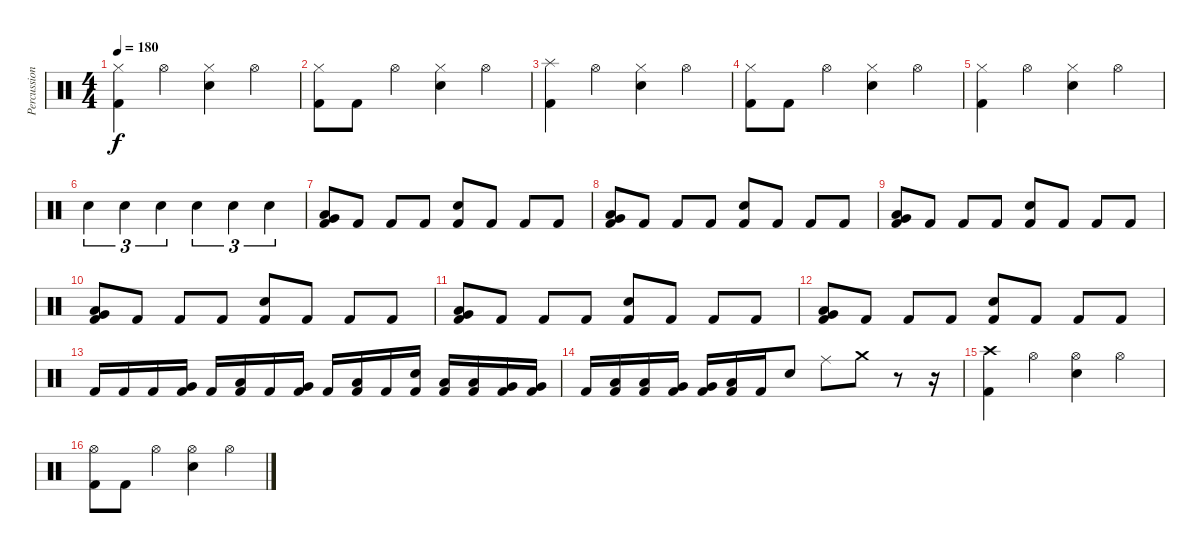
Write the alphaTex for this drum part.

\track ("Percussion" "Percussion") {instrument percussion}
\staff {score}
\articulation defaults
\ts (4 4)
\tempo 180
\clef neutral
\ks c
("Hi-Hat (closed)" "Kick (hit) 2").4{dy f} "Hi-Hat (open)".4 ("Hi-Hat (closed)" "Electric Snare (hit)").4 "Hi-Hat (open)".4 |
("Hi-Hat (closed)" "Kick (hit) 2").8 "Kick (hit) 2".8 "Hi-Hat (open)".4 ("Hi-Hat (closed)" "Electric Snare (hit)").4 "Hi-Hat (open)".4 |
("Splash (hit)" "Kick (hit) 2").4 "Hi-Hat (open)".4 ("Hi-Hat (closed)" "Electric Snare (hit)").4 "Hi-Hat (open)".4 |
("Hi-Hat (closed)" "Kick (hit) 2").8 "Kick (hit) 2".8 "Hi-Hat (open)".4 ("Hi-Hat (closed)" "Electric Snare (hit)").4 "Hi-Hat (open)".4 |
("Hi-Hat (closed)" "Kick (hit) 2").4 "Hi-Hat (open)".4 ("Hi-Hat (closed)" "Electric Snare (hit)").4 "Hi-Hat (open)".4 |
"Electric Snare (hit)".4{tu (3 2)} "Electric Snare (hit)".4{tu (3 2)} "Electric Snare (hit)".4{tu (3 2)} "Electric Snare (hit)".4{tu (3 2)} "Electric Snare (hit)".4{tu (3 2)} "Electric Snare (hit)".4{tu (3 2)} |
("Very Low Tom (hit)" "Low Floor Tom (hit)" "Kick (hit) 2").8 "Kick (hit) 2".8 "Kick (hit) 2".8 "Kick (hit) 2".8 ("Electric Snare (hit)" "Kick (hit) 2").8 "Kick (hit) 2".8 "Kick (hit) 2".8 "Kick (hit) 2".8 |
("Very Low Tom (hit)" "Low Floor Tom (hit)" "Kick (hit) 2").8 "Kick (hit) 2".8 "Kick (hit) 2".8 "Kick (hit) 2".8 ("Electric Snare (hit)" "Kick (hit) 2").8 "Kick (hit) 2".8 "Kick (hit) 2".8 "Kick (hit) 2".8 |
("Very Low Tom (hit)" "Low Floor Tom (hit)" "Kick (hit) 2").8 "Kick (hit) 2".8 "Kick (hit) 2".8 "Kick (hit) 2".8 ("Electric Snare (hit)" "Kick (hit) 2").8 "Kick (hit) 2".8 "Kick (hit) 2".8 "Kick (hit) 2".8 |
("Very Low Tom (hit)" "Low Floor Tom (hit)" "Kick (hit) 2").8 "Kick (hit) 2".8 "Kick (hit) 2".8 "Kick (hit) 2".8 ("Electric Snare (hit)" "Kick (hit) 2").8 "Kick (hit) 2".8 "Kick (hit) 2".8 "Kick (hit) 2".8 |
("Very Low Tom (hit)" "Low Floor Tom (hit)" "Kick (hit) 2").8 "Kick (hit) 2".8 "Kick (hit) 2".8 "Kick (hit) 2".8 ("Electric Snare (hit)" "Kick (hit) 2").8 "Kick (hit) 2".8 "Kick (hit) 2".8 "Kick (hit) 2".8 |
("Very Low Tom (hit)" "Low Floor Tom (hit)" "Kick (hit) 2").8 "Kick (hit) 2".8 "Kick (hit) 2".8 "Kick (hit) 2".8 ("Electric Snare (hit)" "Kick (hit) 2").8 "Kick (hit) 2".8 "Kick (hit) 2".8 "Kick (hit) 2".8 |
"Kick (hit) 2".16 "Kick (hit) 2".16 "Kick (hit) 2".16 ("Very Low Tom (hit)" "Kick (hit) 2").16 "Kick (hit) 2".16 ("Low Tom (hit)" "Kick (hit) 2").16 "Kick (hit) 2".16 ("Very Low Tom (hit)" "Kick (hit) 2").16 "Kick (hit) 2".16 ("Low Tom (hit)" "Kick (hit) 2").16 "Kick (hit) 2".16 ("Electric Snare (hit)" "Kick (hit) 2").16 ("Low Tom (hit)" "Kick (hit) 2").16 ("Low Tom (hit)" "Kick (hit) 2").16 ("Very Low Tom (hit)" "Kick (hit) 2").16 ("Very Low Tom (hit)" "Kick (hit) 2").16 |
"Kick (hit) 2".16 ("Low Tom (hit)" "Kick (hit) 2").16 ("Low Tom (hit)" "Kick (hit) 2").16 ("Very Low Tom (hit)" "Kick (hit) 2").16 ("Very Low Tom (hit)" "Kick (hit) 2").16 ("Low Floor Tom (hit)" "Kick (hit) 2").16 "Kick (hit) 2".16 "Electric Snare (hit)".8 "Ride (middle)".8 "Crash medium (hit)".8 r.8 r.16 |
("Crash high (hit)" "Kick (hit) 2").4 "Hi-Hat (open)".4 ("Hi-Hat (open)" "Electric Snare (hit)").4 "Hi-Hat (open)".4 |
("Hi-Hat (open)" "Kick (hit) 2").8 "Kick (hit) 2".8 "Hi-Hat (open)".4 ("Hi-Hat (open)" "Electric Snare (hit)").4 "Hi-Hat (open)".4
